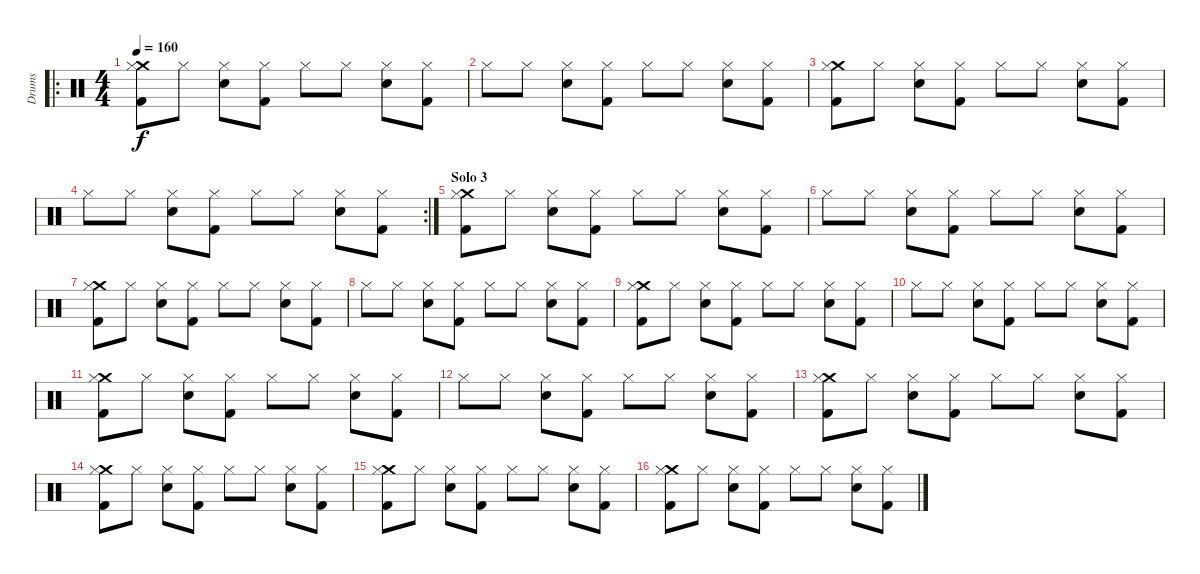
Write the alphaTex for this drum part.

\track ("Drums" "Drums") {instrument percussion}
\staff {score}
\articulation defaults
\ro
\ts (4 4)
\tempo 160
\clef neutral
\ks c
("Crash medium (hit)" "Hi-Hat (closed)" "Kick (hit) 2").8{dy f} "Hi-Hat (closed)".8 ("Hi-Hat (closed)" "Snare (hit) 2").8 ("Hi-Hat (closed)" "Kick (hit) 2").8 "Hi-Hat (closed)".8 "Hi-Hat (closed)".8 ("Hi-Hat (closed)" "Snare (hit) 2").8 ("Hi-Hat (closed)" "Kick (hit) 2").8 |
"Hi-Hat (closed)".8 "Hi-Hat (closed)".8 ("Hi-Hat (closed)" "Snare (hit) 2").8 ("Hi-Hat (closed)" "Kick (hit) 2").8 "Hi-Hat (closed)".8 "Hi-Hat (closed)".8 ("Hi-Hat (closed)" "Snare (hit) 2").8 ("Hi-Hat (closed)" "Kick (hit) 2").8 |
("Crash medium (hit)" "Hi-Hat (closed)" "Kick (hit) 2").8 "Hi-Hat (closed)".8 ("Hi-Hat (closed)" "Snare (hit) 2").8 ("Hi-Hat (closed)" "Kick (hit) 2").8 "Hi-Hat (closed)".8 "Hi-Hat (closed)".8 ("Hi-Hat (closed)" "Snare (hit) 2").8 ("Hi-Hat (closed)" "Kick (hit) 2").8 |
\rc 2 "Hi-Hat (closed)".8 "Hi-Hat (closed)".8
("Hi-Hat (closed)" "Snare (hit) 2").8 ("Hi-Hat (closed)" "Kick (hit) 2").8 "Hi-Hat (closed)".8 "Hi-Hat (closed)".8 ("Hi-Hat (closed)" "Snare (hit) 2").8 ("Hi-Hat (closed)" "Kick (hit) 2").8 |
\section ("" "Solo 3")
("Crash medium (hit)" "Hi-Hat (closed)" "Kick (hit) 2").8 "Hi-Hat (closed)".8 ("Hi-Hat (closed)" "Snare (hit) 2").8 ("Hi-Hat (closed)" "Kick (hit) 2").8 "Hi-Hat (closed)".8 "Hi-Hat (closed)".8 ("Hi-Hat (closed)" "Snare (hit) 2").8 ("Hi-Hat (closed)" "Kick (hit) 2").8 |
"Hi-Hat (closed)".8 "Hi-Hat (closed)".8 ("Hi-Hat (closed)" "Snare (hit) 2").8 ("Hi-Hat (closed)" "Kick (hit) 2").8 "Hi-Hat (closed)".8 "Hi-Hat (closed)".8 ("Hi-Hat (closed)" "Snare (hit) 2").8 ("Hi-Hat (closed)" "Kick (hit) 2").8 |
("Crash medium (hit)" "Hi-Hat (closed)" "Kick (hit) 2").8 "Hi-Hat (closed)".8 ("Hi-Hat (closed)" "Snare (hit) 2").8 ("Hi-Hat (closed)" "Kick (hit) 2").8 "Hi-Hat (closed)".8 "Hi-Hat (closed)".8 ("Hi-Hat (closed)" "Snare (hit) 2").8 ("Hi-Hat (closed)" "Kick (hit) 2").8 |
"Hi-Hat (closed)".8 "Hi-Hat (closed)".8 ("Hi-Hat (closed)" "Snare (hit) 2").8 ("Hi-Hat (closed)" "Kick (hit) 2").8 "Hi-Hat (closed)".8 "Hi-Hat (closed)".8 ("Hi-Hat (closed)" "Snare (hit) 2").8 ("Hi-Hat (closed)" "Kick (hit) 2").8 |
("Crash medium (hit)" "Hi-Hat (closed)" "Kick (hit) 2").8 "Hi-Hat (closed)".8 ("Hi-Hat (closed)" "Snare (hit) 2").8 ("Hi-Hat (closed)" "Kick (hit) 2").8 "Hi-Hat (closed)".8 "Hi-Hat (closed)".8 ("Hi-Hat (closed)" "Snare (hit) 2").8 ("Hi-Hat (closed)" "Kick (hit) 2").8 |
"Hi-Hat (closed)".8 "Hi-Hat (closed)".8 ("Hi-Hat (closed)" "Snare (hit) 2").8 ("Hi-Hat (closed)" "Kick (hit) 2").8 "Hi-Hat (closed)".8 "Hi-Hat (closed)".8 ("Hi-Hat (closed)" "Snare (hit) 2").8 ("Hi-Hat (closed)" "Kick (hit) 2").8 |
("Crash medium (hit)" "Hi-Hat (closed)" "Kick (hit) 2").8 "Hi-Hat (closed)".8 ("Hi-Hat (closed)" "Snare (hit) 2").8 ("Hi-Hat (closed)" "Kick (hit) 2").8 "Hi-Hat (closed)".8 "Hi-Hat (closed)".8 ("Hi-Hat (closed)" "Snare (hit) 2").8 ("Hi-Hat (closed)" "Kick (hit) 2").8 |
"Hi-Hat (closed)".8 "Hi-Hat (closed)".8 ("Hi-Hat (closed)" "Snare (hit) 2").8 ("Hi-Hat (closed)" "Kick (hit) 2").8 "Hi-Hat (closed)".8 "Hi-Hat (closed)".8 ("Hi-Hat (closed)" "Snare (hit) 2").8 ("Hi-Hat (closed)" "Kick (hit) 2").8 |
("Crash medium (hit)" "Hi-Hat (closed)" "Kick (hit) 2").8 "Hi-Hat (closed)".8 ("Hi-Hat (closed)" "Snare (hit) 2").8 ("Hi-Hat (closed)" "Kick (hit) 2").8 "Hi-Hat (closed)".8 "Hi-Hat (closed)".8 ("Hi-Hat (closed)" "Snare (hit) 2").8 ("Hi-Hat (closed)" "Kick (hit) 2").8 |
("Crash medium (hit)" "Hi-Hat (closed)" "Kick (hit) 2").8 "Hi-Hat (closed)".8 ("Hi-Hat (closed)" "Snare (hit) 2").8 ("Hi-Hat (closed)" "Kick (hit) 2").8 "Hi-Hat (closed)".8 "Hi-Hat (closed)".8 ("Hi-Hat (closed)" "Snare (hit) 2").8 ("Hi-Hat (closed)" "Kick (hit) 2").8 |
("Crash medium (hit)" "Hi-Hat (closed)" "Kick (hit) 2").8 "Hi-Hat (closed)".8 ("Hi-Hat (closed)" "Snare (hit) 2").8 ("Hi-Hat (closed)" "Kick (hit) 2").8 "Hi-Hat (closed)".8 "Hi-Hat (closed)".8 ("Hi-Hat (closed)" "Snare (hit) 2").8 ("Hi-Hat (closed)" "Kick (hit) 2").8 |
("Crash medium (hit)" "Hi-Hat (closed)" "Kick (hit) 2").8 "Hi-Hat (closed)".8 ("Hi-Hat (closed)" "Snare (hit) 2").8 ("Hi-Hat (closed)" "Kick (hit) 2").8 "Hi-Hat (closed)".8 "Hi-Hat (closed)".8 ("Hi-Hat (closed)" "Snare (hit) 2").8 ("Hi-Hat (closed)" "Kick (hit) 2").8
